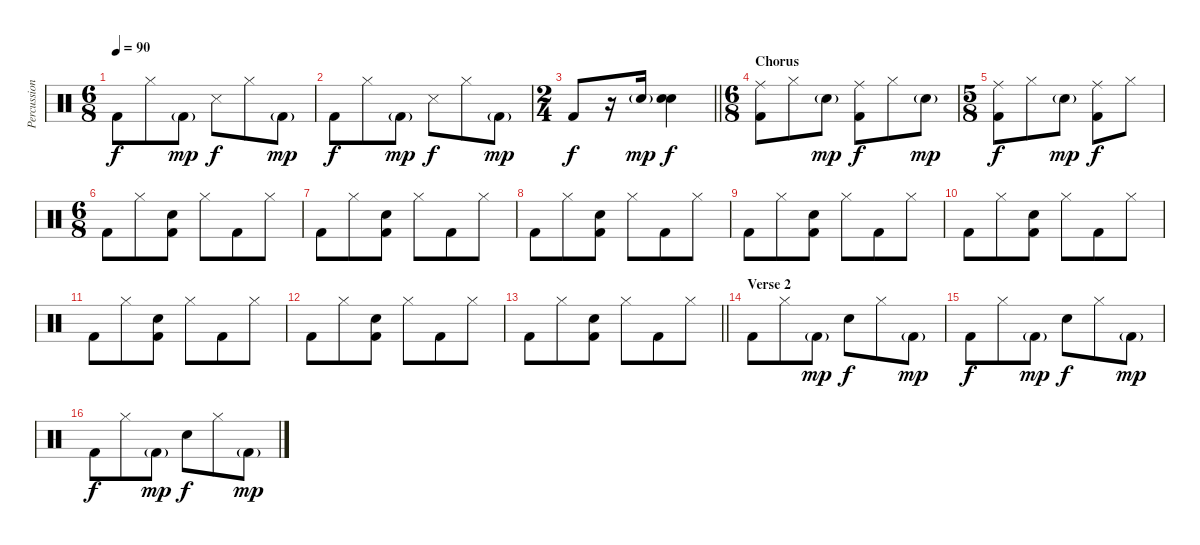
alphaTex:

\track ("Percussion" "Percussion") {instrument percussion}
\staff {score}
\articulation defaults
\ts (6 8)
\tempo 90
\clef neutral
\ks c "Kick (hit) 2".8{dy f} "Hi-Hat (closed)".8 "Kick (hit) 2"{g}.8{dy mp} "Snare (side stick) 3".8{dy f} "Hi-Hat (closed)".8 "Kick (hit) 2"{g}.8{dy mp}
|
"Kick (hit) 2".8{dy f} "Hi-Hat (closed)".8 "Kick (hit) 2"{g}.8{dy mp} "Snare (side stick) 3".8{dy f} "Hi-Hat (closed)".8 "Kick (hit) 2"{g}.8{dy mp} |
\ts (2 4)
\barLineRight lightlight "Kick (hit) 2".8{dy f}
r.16 "Snare (hit) 2"{g}.16{dy mp} ("Snare (hit) 2" "Snare (hit) 2").4{dy f} |
\ts (6 8)
\section ("" "Chorus")
("Ride (middle)" "Kick (hit) 2").8 "Hi-Hat (closed)".8 "Snare (hit) 2"{g}.8{dy mp} ("Ride (middle)" "Kick (hit) 2").8{dy f} "Hi-Hat (closed)".8 "Snare (hit) 2"{g}.8{dy mp} |
\ts (5 8)
("Ride (middle)" "Kick (hit) 2").8{dy f} "Hi-Hat (closed)".8 "Snare (hit) 2"{g}.8{dy mp} ("Ride (middle)" "Kick (hit) 2").8{dy f} "Hi-Hat (closed)".8 |
\ts (6 8)
"Kick (hit) 2".8 "Hi-Hat (closed)".8 ("Snare (hit) 2" "Kick (hit) 2").8 "Hi-Hat (closed)".8 "Kick (hit) 2".8 "Hi-Hat (closed)".8 |
"Kick (hit) 2".8 "Hi-Hat (closed)".8 ("Snare (hit) 2" "Kick (hit) 2").8 "Hi-Hat (closed)".8 "Kick (hit) 2".8 "Hi-Hat (closed)".8 |
"Kick (hit) 2".8 "Hi-Hat (closed)".8 ("Snare (hit) 2" "Kick (hit) 2").8 "Hi-Hat (closed)".8 "Kick (hit) 2".8 "Hi-Hat (closed)".8 |
"Kick (hit) 2".8 "Hi-Hat (closed)".8 ("Snare (hit) 2" "Kick (hit) 2").8 "Hi-Hat (closed)".8 "Kick (hit) 2".8 "Hi-Hat (closed)".8 |
"Kick (hit) 2".8 "Hi-Hat (closed)".8 ("Snare (hit) 2" "Kick (hit) 2").8 "Hi-Hat (closed)".8 "Kick (hit) 2".8 "Hi-Hat (closed)".8 |
"Kick (hit) 2".8 "Hi-Hat (closed)".8 ("Snare (hit) 2" "Kick (hit) 2").8 "Hi-Hat (closed)".8 "Kick (hit) 2".8 "Hi-Hat (closed)".8 |
"Kick (hit) 2".8 "Hi-Hat (closed)".8 ("Snare (hit) 2" "Kick (hit) 2").8 "Hi-Hat (closed)".8 "Kick (hit) 2".8 "Hi-Hat (closed)".8 |
\barLineRight lightlight "Kick (hit) 2".8 "Hi-Hat (closed)".8
("Snare (hit) 2" "Kick (hit) 2").8 "Hi-Hat (closed)".8 "Kick (hit) 2".8 "Hi-Hat (closed)".8 |
\section ("" "Verse 2")
"Kick (hit) 2".8 "Hi-Hat (closed)".8 "Kick (hit) 2"{g}.8{dy mp} "Snare (hit) 2".8{dy f} "Hi-Hat (closed)".8 "Kick (hit) 2"{g}.8{dy mp} |
"Kick (hit) 2".8{dy f} "Hi-Hat (closed)".8 "Kick (hit) 2"{g}.8{dy mp} "Snare (hit) 2".8{dy f} "Hi-Hat (closed)".8 "Kick (hit) 2"{g}.8{dy mp} |
"Kick (hit) 2".8{dy f} "Hi-Hat (closed)".8 "Kick (hit) 2"{g}.8{dy mp} "Snare (hit) 2".8{dy f} "Hi-Hat (closed)".8 "Kick (hit) 2"{g}.8{dy mp}
